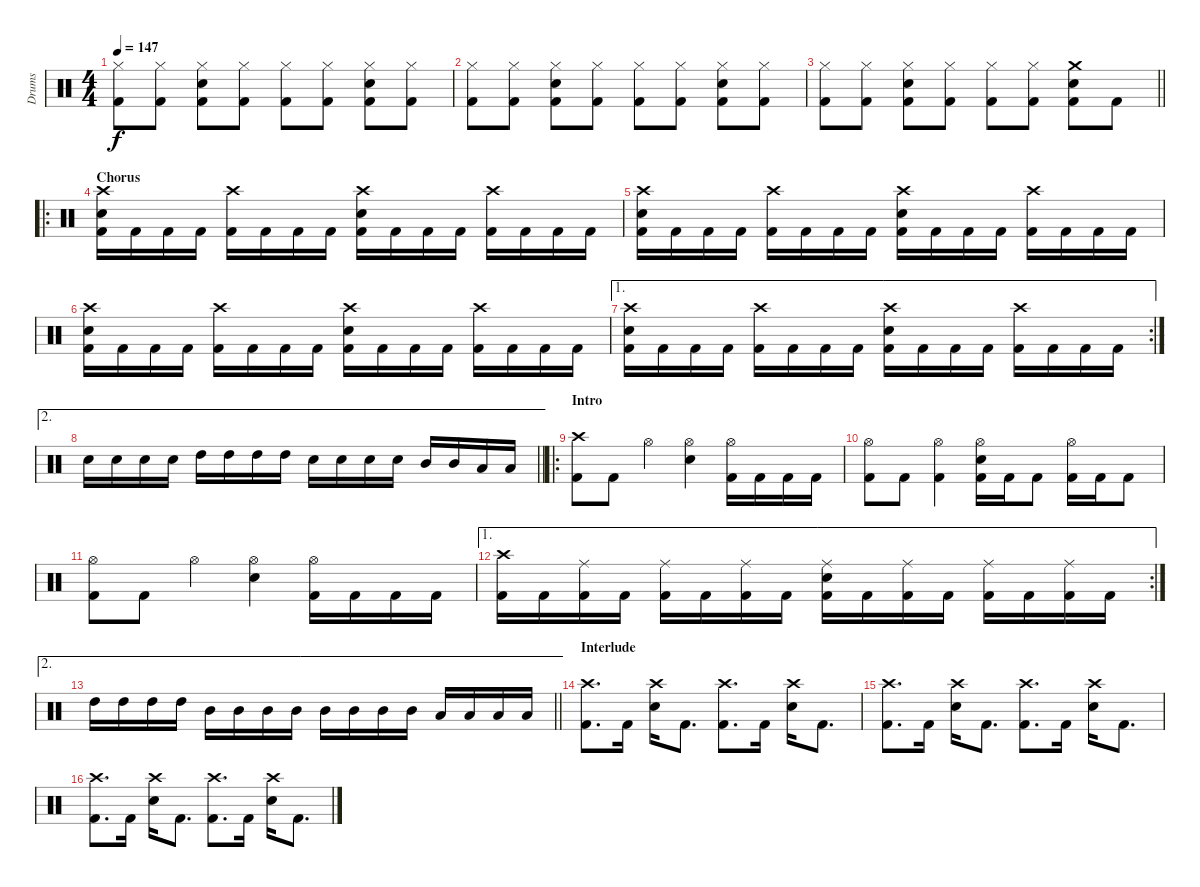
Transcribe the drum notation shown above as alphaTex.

\track ("Drums" "Drums") {instrument percussion}
\staff {score}
\articulation defaults
\ts (4 4)
\tempo 147
\clef neutral
\ks c
("Hi-Hat (closed)" "Kick (hit) 2").8{dy f} ("Hi-Hat (closed)" "Kick (hit) 2").8 ("Hi-Hat (closed)" "Electric Snare (hit)" "Kick (hit) 2").8 ("Hi-Hat (closed)" "Kick (hit) 2").8 ("Hi-Hat (closed)" "Kick (hit) 2").8 ("Hi-Hat (closed)" "Kick (hit) 2").8 ("Hi-Hat (closed)" "Electric Snare (hit)" "Kick (hit) 2").8 ("Hi-Hat (closed)" "Kick (hit) 2").8 |
("Hi-Hat (closed)" "Kick (hit) 2").8 ("Hi-Hat (closed)" "Kick (hit) 2").8 ("Hi-Hat (closed)" "Electric Snare (hit)" "Kick (hit) 2").8 ("Hi-Hat (closed)" "Kick (hit) 2").8 ("Hi-Hat (closed)" "Kick (hit) 2").8 ("Hi-Hat (closed)" "Kick (hit) 2").8 ("Hi-Hat (closed)" "Electric Snare (hit)" "Kick (hit) 2").8 ("Hi-Hat (closed)" "Kick (hit) 2").8 |
\barLineRight lightlight
("Hi-Hat (closed)" "Kick (hit) 2").8 ("Hi-Hat (closed)" "Kick (hit) 2").8 ("Hi-Hat (closed)" "Electric Snare (hit)" "Kick (hit) 2").8 ("Hi-Hat (closed)" "Kick (hit) 2").8 ("Hi-Hat (closed)" "Kick (hit) 2").8 ("Hi-Hat (closed)" "Kick (hit) 2").8 ("Crash medium (hit)" "Electric Snare (hit)" "Kick (hit) 2").8 "Kick (hit) 2".8 |
\ro
\section ("" "Chorus")
("Crash high (hit)" "Electric Snare (hit)" "Kick (hit) 2").16 "Kick (hit) 2".16 "Kick (hit) 2".16 "Kick (hit) 2".16 ("Crash high (hit)" "Kick (hit) 2").16 "Kick (hit) 2".16 "Kick (hit) 2".16 "Kick (hit) 2".16 ("Crash high (hit)" "Electric Snare (hit)" "Kick (hit) 2").16 "Kick (hit) 2".16 "Kick (hit) 2".16 "Kick (hit) 2".16 ("Crash high (hit)" "Kick (hit) 2").16 "Kick (hit) 2".16 "Kick (hit) 2".16 "Kick (hit) 2".16 |
("Crash high (hit)" "Electric Snare (hit)" "Kick (hit) 2").16 "Kick (hit) 2".16 "Kick (hit) 2".16 "Kick (hit) 2".16 ("Crash high (hit)" "Kick (hit) 2").16 "Kick (hit) 2".16 "Kick (hit) 2".16 "Kick (hit) 2".16 ("Crash high (hit)" "Electric Snare (hit)" "Kick (hit) 2").16 "Kick (hit) 2".16 "Kick (hit) 2".16 "Kick (hit) 2".16 ("Crash high (hit)" "Kick (hit) 2").16 "Kick (hit) 2".16 "Kick (hit) 2".16 "Kick (hit) 2".16 |
("Crash high (hit)" "Electric Snare (hit)" "Kick (hit) 2").16 "Kick (hit) 2".16 "Kick (hit) 2".16 "Kick (hit) 2".16 ("Crash high (hit)" "Kick (hit) 2").16 "Kick (hit) 2".16 "Kick (hit) 2".16 "Kick (hit) 2".16 ("Crash high (hit)" "Electric Snare (hit)" "Kick (hit) 2").16 "Kick (hit) 2".16 "Kick (hit) 2".16 "Kick (hit) 2".16 ("Crash high (hit)" "Kick (hit) 2").16 "Kick (hit) 2".16 "Kick (hit) 2".16 "Kick (hit) 2".16 |
\ae 1
\rc 2
("Crash high (hit)" "Electric Snare (hit)" "Kick (hit) 2").16 "Kick (hit) 2".16 "Kick (hit) 2".16 "Kick (hit) 2".16 ("Crash high (hit)" "Kick (hit) 2").16 "Kick (hit) 2".16 "Kick (hit) 2".16 "Kick (hit) 2".16 ("Crash high (hit)" "Electric Snare (hit)" "Kick (hit) 2").16 "Kick (hit) 2".16 "Kick (hit) 2".16 "Kick (hit) 2".16 ("Crash high (hit)" "Kick (hit) 2").16 "Kick (hit) 2".16 "Kick (hit) 2".16 "Kick (hit) 2".16 |
\ae 2
\barLineRight lightlight "Electric Snare (hit)".16 "Electric Snare (hit)".16 "Electric Snare (hit)".16 "Electric Snare (hit)".16 "High Tom (hit)".16 "High Tom (hit)".16 "High Tom (hit)".16 "High Tom (hit)".16 "Electric Snare (hit)".16 "Electric Snare (hit)".16 "Electric Snare (hit)".16 "Electric Snare (hit)".16 "Mid Tom (hit)".16 "Mid Tom (hit)".16 "Low Tom (hit)".16 "Low Tom (hit)".16
|
\ro
\section ("" "Intro")
("Crash high (hit)" "Kick (hit) 2").8 "Kick (hit) 2".8 "Hi-Hat (open)".4 ("Hi-Hat (open)" "Electric Snare (hit)").4 ("Hi-Hat (open)" "Kick (hit) 2").16 "Kick (hit) 2".16 "Kick (hit) 2".16 "Kick (hit) 2".16 |
("Hi-Hat (open)" "Kick (hit) 2").8 "Kick (hit) 2".8 ("Hi-Hat (open)" "Kick (hit) 2").4 ("Hi-Hat (open)" "Electric Snare (hit)" "Kick (hit) 2").16 "Kick (hit) 2".16 "Kick (hit) 2".8 ("Hi-Hat (open)" "Kick (hit) 2").16 "Kick (hit) 2".16 "Kick (hit) 2".8 |
("Hi-Hat (open)" "Kick (hit) 2").8 "Kick (hit) 2".8 "Hi-Hat (open)".4 ("Hi-Hat (open)" "Electric Snare (hit)").4 ("Hi-Hat (open)" "Kick (hit) 2").16 "Kick (hit) 2".16 "Kick (hit) 2".16 "Kick (hit) 2".16 |
\ae 1
\rc 2
("Crash high (hit)" "Kick (hit) 2").16 "Kick (hit) 2".16 ("Ride (middle)" "Kick (hit) 2").16 "Kick (hit) 2".16 ("Ride (middle)" "Kick (hit) 2").16 "Kick (hit) 2".16 ("Ride (middle)" "Kick (hit) 2").16 "Kick (hit) 2".16 ("Ride (middle)" "Electric Snare (hit)" "Kick (hit) 2").16 "Kick (hit) 2".16 ("Ride (middle)" "Kick (hit) 2").16 "Kick (hit) 2".16 ("Ride (middle)" "Kick (hit) 2").16 "Kick (hit) 2".16 ("Ride (middle)" "Kick (hit) 2").16 "Kick (hit) 2".16 |
\ae 2
\barLineRight lightlight "High Tom (hit)".16 "High Tom (hit)".16 "High Tom (hit)".16 "High Tom (hit)".16 "Mid Tom (hit)".16 "Mid Tom (hit)".16 "Mid Tom (hit)".16 "Mid Tom (hit)".16 "Mid Tom (hit)".16 "Mid Tom (hit)".16 "Mid Tom (hit)".16 "Mid Tom (hit)".16 "Low Tom (hit)".16 "Low Tom (hit)".16 "Low Tom (hit)".16 "Low Tom (hit)".16
|
\section ("" "Interlude")
("Crash high (hit)" "Kick (hit) 2").8{d} "Kick (hit) 2".16 ("Crash high (hit)" "Electric Snare (hit)").16 "Kick (hit) 2".8{d} ("Crash high (hit)" "Kick (hit) 2").8{d} "Kick (hit) 2".16 ("Crash high (hit)" "Electric Snare (hit)").16 "Kick (hit) 2".8{d} |
("Crash high (hit)" "Kick (hit) 2").8{d} "Kick (hit) 2".16 ("Crash high (hit)" "Electric Snare (hit)").16 "Kick (hit) 2".8{d} ("Crash high (hit)" "Kick (hit) 2").8{d} "Kick (hit) 2".16 ("Crash high (hit)" "Electric Snare (hit)").16 "Kick (hit) 2".8{d} |
("Crash high (hit)" "Kick (hit) 2").8{d} "Kick (hit) 2".16 ("Crash high (hit)" "Electric Snare (hit)").16 "Kick (hit) 2".8{d} ("Crash high (hit)" "Kick (hit) 2").8{d} "Kick (hit) 2".16 ("Crash high (hit)" "Electric Snare (hit)").16 "Kick (hit) 2".8{d}
